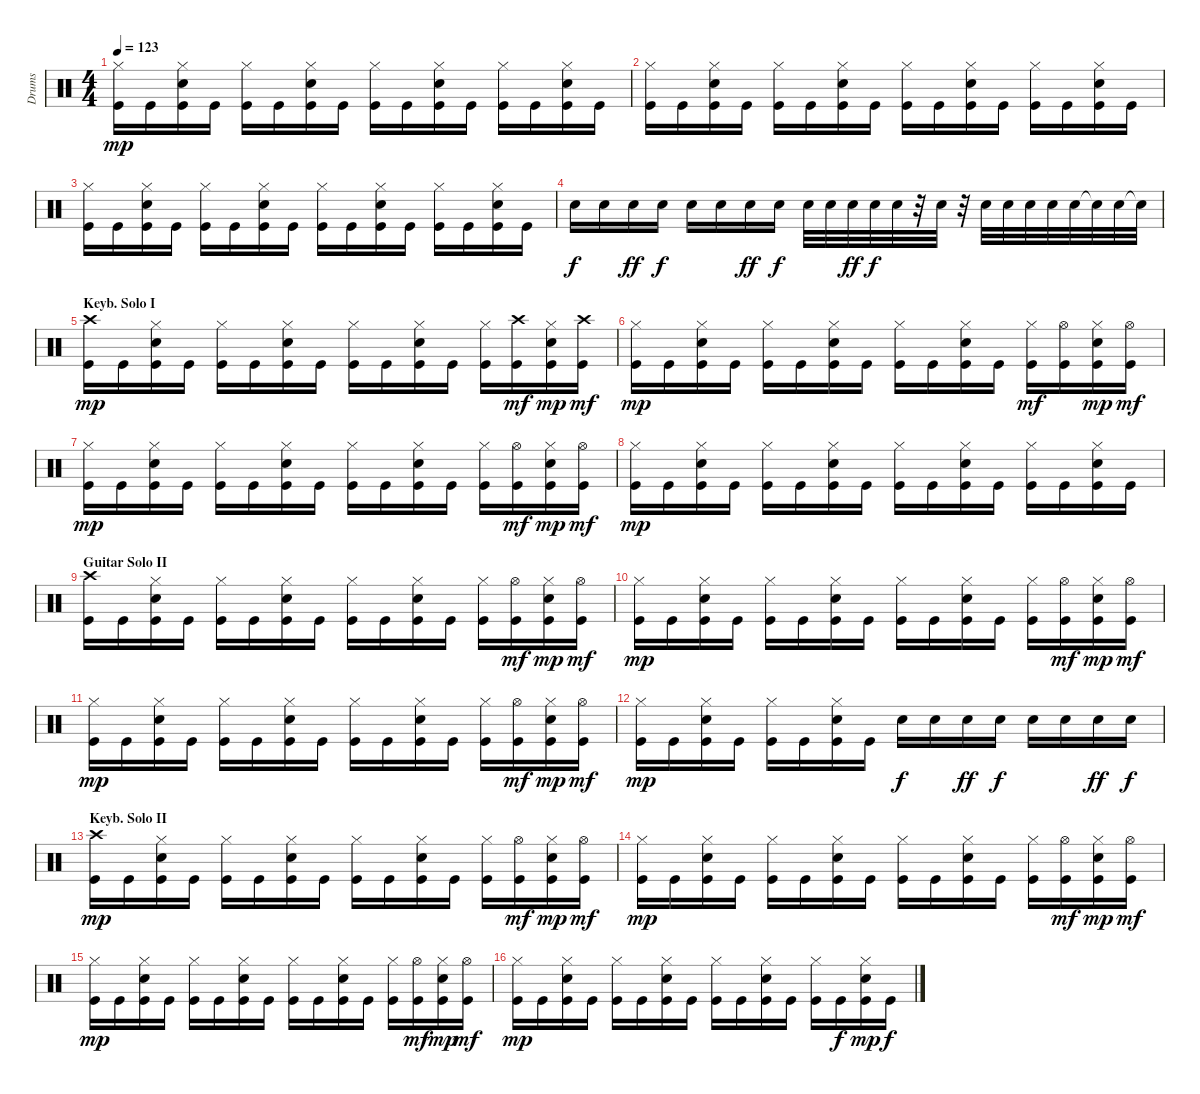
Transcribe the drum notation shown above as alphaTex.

\track ("Drums" "Drums") {instrument percussion}
\staff {score}
\articulation defaults
\ts (4 4)
\tempo 123
\clef neutral
\ks c
("Hi-Hat (closed)" "Kick (hit)").16{dy mp} "Kick (hit)".16 ("Hi-Hat (closed)" "Electric Snare (hit)" "Kick (hit)").16 "Kick (hit)".16 ("Hi-Hat (closed)" "Kick (hit)").16 "Kick (hit)".16 ("Hi-Hat (closed)" "Electric Snare (hit)" "Kick (hit)").16 "Kick (hit)".16 ("Hi-Hat (closed)" "Kick (hit)").16 "Kick (hit)".16 ("Hi-Hat (closed)" "Electric Snare (hit)" "Kick (hit)").16 "Kick (hit)".16 ("Hi-Hat (closed)" "Kick (hit)").16 "Kick (hit)".16 ("Hi-Hat (closed)" "Electric Snare (hit)" "Kick (hit)").16 "Kick (hit)".16 |
("Hi-Hat (closed)" "Kick (hit)").16 "Kick (hit)".16 ("Hi-Hat (closed)" "Electric Snare (hit)" "Kick (hit)").16 "Kick (hit)".16 ("Hi-Hat (closed)" "Kick (hit)").16 "Kick (hit)".16 ("Hi-Hat (closed)" "Electric Snare (hit)" "Kick (hit)").16 "Kick (hit)".16 ("Hi-Hat (closed)" "Kick (hit)").16 "Kick (hit)".16 ("Hi-Hat (closed)" "Electric Snare (hit)" "Kick (hit)").16 "Kick (hit)".16 ("Hi-Hat (closed)" "Kick (hit)").16 "Kick (hit)".16 ("Hi-Hat (closed)" "Electric Snare (hit)" "Kick (hit)").16 "Kick (hit)".16 |
("Hi-Hat (closed)" "Kick (hit)").16 "Kick (hit)".16 ("Hi-Hat (closed)" "Electric Snare (hit)" "Kick (hit)").16 "Kick (hit)".16 ("Hi-Hat (closed)" "Kick (hit)").16 "Kick (hit)".16 ("Hi-Hat (closed)" "Electric Snare (hit)" "Kick (hit)").16 "Kick (hit)".16 ("Hi-Hat (closed)" "Kick (hit)").16 "Kick (hit)".16 ("Hi-Hat (closed)" "Electric Snare (hit)" "Kick (hit)").16 "Kick (hit)".16 ("Hi-Hat (closed)" "Kick (hit)").16 "Kick (hit)".16 ("Hi-Hat (closed)" "Electric Snare (hit)" "Kick (hit)").16 "Kick (hit)".16 |
"Electric Snare (hit)".16{dy f} "Electric Snare (hit)".16 "Electric Snare (hit)".16{dy ff} "Electric Snare (hit)".16{dy f} "Electric Snare (hit)".16 "Electric Snare (hit)".16 "Electric Snare (hit)".16{dy ff} "Electric Snare (hit)".16{dy f} "Electric Snare (hit)".32 "Electric Snare (hit)".32 "Electric Snare (hit)".32{dy ff} "Electric Snare (hit)".32{dy f} "Electric Snare (hit)".32 r.32 "Electric Snare (hit)".32 r.32 "Electric Snare (hit)".32 "Electric Snare (hit)".32 "Electric Snare (hit)".32 "Electric Snare (hit)".32 "Electric Snare (hit)".32 "Electric Snare (hit)"{t}.32 "Electric Snare (hit)".32 "Snare (hit)"{t}.32 |
\section ("" "Keyb. Solo I")
("Crash high (hit)" "Kick (hit)").16{dy mp} "Kick (hit)".16 ("Hi-Hat (closed)" "Electric Snare (hit)" "Kick (hit)").16 "Kick (hit)".16 ("Hi-Hat (closed)" "Kick (hit)").16 "Kick (hit)".16 ("Hi-Hat (closed)" "Electric Snare (hit)" "Kick (hit)").16 "Kick (hit)".16 ("Hi-Hat (closed)" "Kick (hit)").16 "Kick (hit)".16 ("Hi-Hat (closed)" "Electric Snare (hit)" "Kick (hit)").16 "Kick (hit)".16 ("Hi-Hat (closed)" "Kick (hit)").16 ("Crash high (hit)" "Kick (hit)").16{dy mf} ("Hi-Hat (closed)" "Electric Snare (hit)" "Kick (hit)").16{dy mp} ("Crash high (hit)" "Kick (hit)").16{dy mf} |
("Hi-Hat (closed)" "Kick (hit)").16{dy mp} "Kick (hit)".16 ("Hi-Hat (closed)" "Electric Snare (hit)" "Kick (hit)").16 "Kick (hit)".16 ("Hi-Hat (closed)" "Kick (hit)").16 "Kick (hit)".16 ("Hi-Hat (closed)" "Electric Snare (hit)" "Kick (hit)").16 "Kick (hit)".16 ("Hi-Hat (closed)" "Kick (hit)").16 "Kick (hit)".16 ("Hi-Hat (closed)" "Electric Snare (hit)" "Kick (hit)").16 "Kick (hit)".16 ("Hi-Hat (closed)" "Kick (hit)").16{dy mf} ("Hi-Hat (open)" "Kick (hit)").16 ("Hi-Hat (closed)" "Electric Snare (hit)" "Kick (hit)").16{dy mp} ("Hi-Hat (open)" "Kick (hit)").16{dy mf} |
("Hi-Hat (closed)" "Kick (hit)").16{dy mp} "Kick (hit)".16 ("Hi-Hat (closed)" "Electric Snare (hit)" "Kick (hit)").16 "Kick (hit)".16 ("Hi-Hat (closed)" "Kick (hit)").16 "Kick (hit)".16 ("Hi-Hat (closed)" "Electric Snare (hit)" "Kick (hit)").16 "Kick (hit)".16 ("Hi-Hat (closed)" "Kick (hit)").16 "Kick (hit)".16 ("Hi-Hat (closed)" "Electric Snare (hit)" "Kick (hit)").16 "Kick (hit)".16 ("Hi-Hat (closed)" "Kick (hit)").16 ("Hi-Hat (open)" "Kick (hit)").16{dy mf} ("Hi-Hat (closed)" "Electric Snare (hit)" "Kick (hit)").16{dy mp} ("Hi-Hat (open)" "Kick (hit)").16{dy mf} |
("Hi-Hat (closed)" "Kick (hit)").16{dy mp} "Kick (hit)".16 ("Hi-Hat (closed)" "Electric Snare (hit)" "Kick (hit)").16 "Kick (hit)".16 ("Hi-Hat (closed)" "Kick (hit)").16 "Kick (hit)".16 ("Hi-Hat (closed)" "Electric Snare (hit)" "Kick (hit)").16 "Kick (hit)".16 ("Hi-Hat (closed)" "Kick (hit)").16 "Kick (hit)".16 ("Hi-Hat (closed)" "Electric Snare (hit)" "Kick (hit)").16 "Kick (hit)".16 ("Hi-Hat (closed)" "Kick (hit)").16 "Kick (hit)".16 ("Hi-Hat (closed)" "Electric Snare (hit)" "Kick (hit)").16 "Kick (hit)".16 |
\section ("" "Guitar Solo II")
("Crash high (hit)" "Kick (hit)").16 "Kick (hit)".16 ("Hi-Hat (closed)" "Electric Snare (hit)" "Kick (hit)").16 "Kick (hit)".16 ("Hi-Hat (closed)" "Kick (hit)").16 "Kick (hit)".16 ("Hi-Hat (closed)" "Electric Snare (hit)" "Kick (hit)").16 "Kick (hit)".16 ("Hi-Hat (closed)" "Kick (hit)").16 "Kick (hit)".16 ("Hi-Hat (closed)" "Electric Snare (hit)" "Kick (hit)").16 "Kick (hit)".16 ("Hi-Hat (closed)" "Kick (hit)").16 ("Hi-Hat (open)" "Kick (hit)").16{dy mf} ("Hi-Hat (closed)" "Electric Snare (hit)" "Kick (hit)").16{dy mp} ("Hi-Hat (open)" "Kick (hit)").16{dy mf} |
("Hi-Hat (closed)" "Kick (hit)").16{dy mp} "Kick (hit)".16 ("Hi-Hat (closed)" "Electric Snare (hit)" "Kick (hit)").16 "Kick (hit)".16 ("Hi-Hat (closed)" "Kick (hit)").16 "Kick (hit)".16 ("Hi-Hat (closed)" "Electric Snare (hit)" "Kick (hit)").16 "Kick (hit)".16 ("Hi-Hat (closed)" "Kick (hit)").16 "Kick (hit)".16 ("Hi-Hat (closed)" "Electric Snare (hit)" "Kick (hit)").16 "Kick (hit)".16 ("Hi-Hat (closed)" "Kick (hit)").16 ("Hi-Hat (open)" "Kick (hit)").16{dy mf} ("Hi-Hat (closed)" "Electric Snare (hit)" "Kick (hit)").16{dy mp} ("Hi-Hat (open)" "Kick (hit)").16{dy mf} |
("Hi-Hat (closed)" "Kick (hit)").16{dy mp} "Kick (hit)".16 ("Hi-Hat (closed)" "Electric Snare (hit)" "Kick (hit)").16 "Kick (hit)".16 ("Hi-Hat (closed)" "Kick (hit)").16 "Kick (hit)".16 ("Hi-Hat (closed)" "Electric Snare (hit)" "Kick (hit)").16 "Kick (hit)".16 ("Hi-Hat (closed)" "Kick (hit)").16 "Kick (hit)".16 ("Hi-Hat (closed)" "Electric Snare (hit)" "Kick (hit)").16 "Kick (hit)".16 ("Hi-Hat (closed)" "Kick (hit)").16 ("Hi-Hat (open)" "Kick (hit)").16{dy mf} ("Hi-Hat (closed)" "Electric Snare (hit)" "Kick (hit)").16{dy mp} ("Hi-Hat (open)" "Kick (hit)").16{dy mf} |
("Hi-Hat (closed)" "Kick (hit)").16{dy mp} "Kick (hit)".16 ("Hi-Hat (closed)" "Electric Snare (hit)" "Kick (hit)").16 "Kick (hit)".16 ("Hi-Hat (closed)" "Kick (hit)").16 "Kick (hit)".16 ("Hi-Hat (closed)" "Electric Snare (hit)" "Kick (hit)").16 "Kick (hit)".16 "Snare (hit) 2".16{dy f} "Snare (hit) 2".16 "Snare (hit) 2".16{dy ff} "Snare (hit) 2".16{dy f} "Snare (hit) 2".16 "Snare (hit) 2".16 "Snare (hit) 2".16{dy ff} "Snare (hit) 2".16{dy f} |
\section ("" "Keyb. Solo II")
("Crash high (hit)" "Kick (hit)").16{dy mp} "Kick (hit)".16 ("Hi-Hat (closed)" "Electric Snare (hit)" "Kick (hit)").16 "Kick (hit)".16 ("Hi-Hat (closed)" "Kick (hit)").16 "Kick (hit)".16 ("Hi-Hat (closed)" "Electric Snare (hit)" "Kick (hit)").16 "Kick (hit)".16 ("Hi-Hat (closed)" "Kick (hit)").16 "Kick (hit)".16 ("Hi-Hat (closed)" "Electric Snare (hit)" "Kick (hit)").16 "Kick (hit)".16 ("Hi-Hat (closed)" "Kick (hit)").16 ("Hi-Hat (open)" "Kick (hit)").16{dy mf} ("Hi-Hat (closed)" "Electric Snare (hit)" "Kick (hit)").16{dy mp} ("Hi-Hat (open)" "Kick (hit)").16{dy mf} |
("Hi-Hat (closed)" "Kick (hit)").16{dy mp} "Kick (hit)".16 ("Hi-Hat (closed)" "Electric Snare (hit)" "Kick (hit)").16 "Kick (hit)".16 ("Hi-Hat (closed)" "Kick (hit)").16 "Kick (hit)".16 ("Hi-Hat (closed)" "Electric Snare (hit)" "Kick (hit)").16 "Kick (hit)".16 ("Hi-Hat (closed)" "Kick (hit)").16 "Kick (hit)".16 ("Hi-Hat (closed)" "Electric Snare (hit)" "Kick (hit)").16 "Kick (hit)".16 ("Hi-Hat (closed)" "Kick (hit)").16 ("Hi-Hat (open)" "Kick (hit)").16{dy mf} ("Hi-Hat (closed)" "Electric Snare (hit)" "Kick (hit)").16{dy mp} ("Hi-Hat (open)" "Kick (hit)").16{dy mf} |
("Hi-Hat (closed)" "Kick (hit)").16{dy mp} "Kick (hit)".16 ("Hi-Hat (closed)" "Electric Snare (hit)" "Kick (hit)").16 "Kick (hit)".16 ("Hi-Hat (closed)" "Kick (hit)").16 "Kick (hit)".16 ("Hi-Hat (closed)" "Electric Snare (hit)" "Kick (hit)").16 "Kick (hit)".16 ("Hi-Hat (closed)" "Kick (hit)").16 "Kick (hit)".16 ("Hi-Hat (closed)" "Electric Snare (hit)" "Kick (hit)").16 "Kick (hit)".16 ("Hi-Hat (closed)" "Kick (hit)").16 ("Hi-Hat (open)" "Kick (hit)").16{dy mf} ("Hi-Hat (closed)" "Electric Snare (hit)" "Kick (hit)").16{dy mp} ("Hi-Hat (open)" "Kick (hit)").16{dy mf} |
("Hi-Hat (closed)" "Kick (hit)").16{dy mp} "Kick (hit)".16 ("Hi-Hat (closed)" "Electric Snare (hit)" "Kick (hit)").16 "Kick (hit)".16 ("Hi-Hat (closed)" "Kick (hit)").16 "Kick (hit)".16 ("Hi-Hat (closed)" "Electric Snare (hit)" "Kick (hit)").16 "Kick (hit)".16 ("Hi-Hat (closed)" "Kick (hit)").16 "Kick (hit)".16 ("Hi-Hat (closed)" "Electric Snare (hit)" "Kick (hit)").16 "Kick (hit)".16 ("Hi-Hat (closed)" "Kick (hit)").16 "Kick (hit)".16{dy f} ("Hi-Hat (closed)" "Electric Snare (hit)" "Kick (hit)").16{dy mp} "Kick (hit)".16{dy f}
